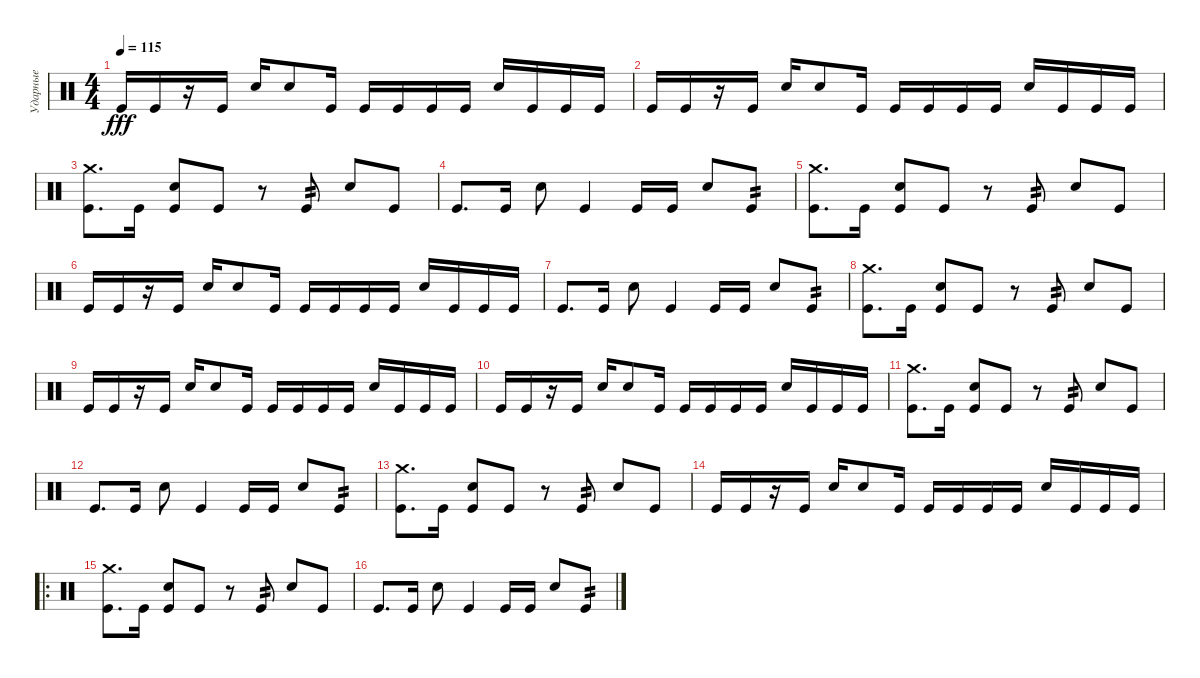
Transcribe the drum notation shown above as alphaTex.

\track ("Ударные" "Ударные") {instrument percussion}
\staff {score}
\articulation defaults
\ts (4 4)
\tempo 115
\clef neutral
\ks c "Kick (hit)".16{dy fff} "Kick (hit)".16
r.16 "Kick (hit)".16 "Electric Snare (hit)".16 "Electric Snare (hit)".8 "Kick (hit)".16 "Kick (hit)".16 "Kick (hit)".16 "Kick (hit)".16 "Kick (hit)".16 "Electric Snare (hit)".16 "Kick (hit)".16 "Kick (hit)".16 "Kick (hit)".16 |
"Kick (hit)".16 "Kick (hit)".16 r.16 "Kick (hit)".16 "Electric Snare (hit)".16 "Electric Snare (hit)".8 "Kick (hit)".16 "Kick (hit)".16 "Kick (hit)".16 "Kick (hit)".16 "Kick (hit)".16 "Electric Snare (hit)".16 "Kick (hit)".16 "Kick (hit)".16 "Kick (hit)".16 |
("Crash medium (hit)" "Kick (hit)").8{d} "Kick (hit)".16 ("Electric Snare (hit)" "Kick (hit)").8 "Kick (hit)".8 r.8 "Kick (hit)".8{tp 2} "Electric Snare (hit)".8 "Kick (hit)".8 |
"Kick (hit)".8{d} "Kick (hit)".16 "Electric Snare (hit)".8 "Kick (hit)".4 "Kick (hit)".16 "Kick (hit)".16 "Electric Snare (hit)".8 "Kick (hit)".8{tp 2} |
("Crash medium (hit)" "Kick (hit)").8{d} "Kick (hit)".16 ("Electric Snare (hit)" "Kick (hit)").8 "Kick (hit)".8 r.8 "Kick (hit)".8{tp 2} "Electric Snare (hit)".8 "Kick (hit)".8 |
"Kick (hit)".16 "Kick (hit)".16 r.16 "Kick (hit)".16 "Electric Snare (hit)".16 "Electric Snare (hit)".8 "Kick (hit)".16 "Kick (hit)".16 "Kick (hit)".16 "Kick (hit)".16 "Kick (hit)".16 "Electric Snare (hit)".16 "Kick (hit)".16 "Kick (hit)".16 "Kick (hit)".16 |
"Kick (hit)".8{d} "Kick (hit)".16 "Electric Snare (hit)".8 "Kick (hit)".4 "Kick (hit)".16 "Kick (hit)".16 "Electric Snare (hit)".8 "Kick (hit)".8{tp 2} |
("Crash medium (hit)" "Kick (hit)").8{d} "Kick (hit)".16 ("Electric Snare (hit)" "Kick (hit)").8 "Kick (hit)".8 r.8 "Kick (hit)".8{tp 2} "Electric Snare (hit)".8 "Kick (hit)".8 |
"Kick (hit)".16 "Kick (hit)".16 r.16 "Kick (hit)".16 "Electric Snare (hit)".16 "Electric Snare (hit)".8 "Kick (hit)".16 "Kick (hit)".16 "Kick (hit)".16 "Kick (hit)".16 "Kick (hit)".16 "Electric Snare (hit)".16 "Kick (hit)".16 "Kick (hit)".16 "Kick (hit)".16 |
"Kick (hit)".16 "Kick (hit)".16 r.16 "Kick (hit)".16 "Electric Snare (hit)".16 "Electric Snare (hit)".8 "Kick (hit)".16 "Kick (hit)".16 "Kick (hit)".16 "Kick (hit)".16 "Kick (hit)".16 "Electric Snare (hit)".16 "Kick (hit)".16 "Kick (hit)".16 "Kick (hit)".16 |
("Crash medium (hit)" "Kick (hit)").8{d} "Kick (hit)".16 ("Electric Snare (hit)" "Kick (hit)").8 "Kick (hit)".8 r.8 "Kick (hit)".8{tp 2} "Electric Snare (hit)".8 "Kick (hit)".8 |
"Kick (hit)".8{d} "Kick (hit)".16 "Electric Snare (hit)".8 "Kick (hit)".4 "Kick (hit)".16 "Kick (hit)".16 "Electric Snare (hit)".8 "Kick (hit)".8{tp 2} |
("Crash medium (hit)" "Kick (hit)").8{d} "Kick (hit)".16 ("Electric Snare (hit)" "Kick (hit)").8 "Kick (hit)".8 r.8 "Kick (hit)".8{tp 2} "Electric Snare (hit)".8 "Kick (hit)".8 |
"Kick (hit)".16 "Kick (hit)".16 r.16 "Kick (hit)".16 "Electric Snare (hit)".16 "Electric Snare (hit)".8 "Kick (hit)".16 "Kick (hit)".16 "Kick (hit)".16 "Kick (hit)".16 "Kick (hit)".16 "Electric Snare (hit)".16 "Kick (hit)".16 "Kick (hit)".16 "Kick (hit)".16 |
\ro
("Crash medium (hit)" "Kick (hit)").8{d} "Kick (hit)".16 ("Electric Snare (hit)" "Kick (hit)").8 "Kick (hit)".8 r.8 "Kick (hit)".8{tp 2} "Electric Snare (hit)".8 "Kick (hit)".8 |
"Kick (hit)".8{d} "Kick (hit)".16 "Electric Snare (hit)".8 "Kick (hit)".4 "Kick (hit)".16 "Kick (hit)".16 "Electric Snare (hit)".8 "Kick (hit)".8{tp 2}
